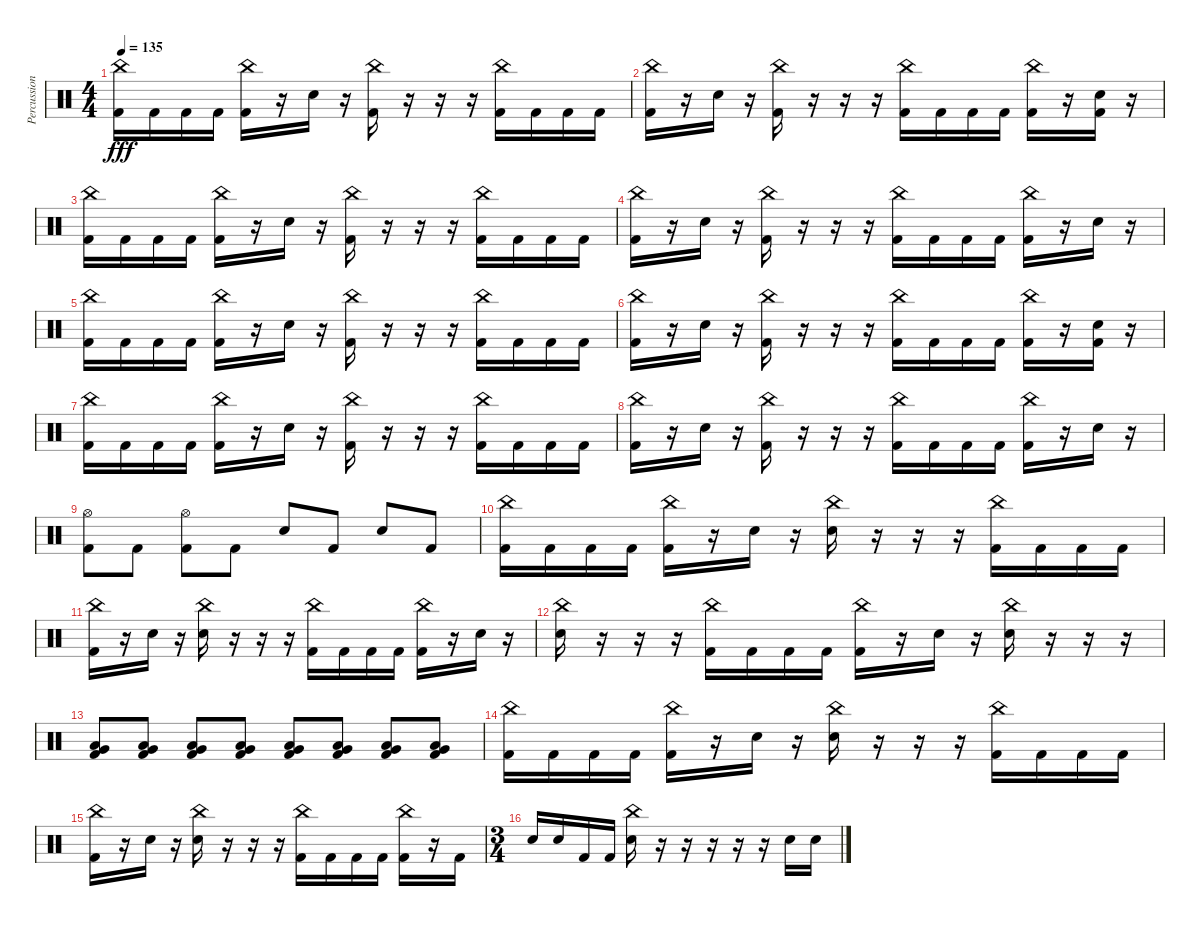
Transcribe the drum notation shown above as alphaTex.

\track ("Percussion" "Percussion") {instrument percussion}
\staff {score}
\articulation defaults
\ts (4 4)
\tempo 135
\clef neutral
\ks c
("China (hit)" "Kick (hit) 2").16{dy fff} "Kick (hit) 2".16 "Kick (hit) 2".16 "Kick (hit) 2".16 ("China (hit)" "Kick (hit) 2").16 r.16 "Snare (hit) 2".16 r.16 ("China (hit)" "Kick (hit) 2").16 r.16 r.16 r.16 ("China (hit)" "Kick (hit) 2").16 "Kick (hit) 2".16 "Kick (hit) 2".16 "Kick (hit) 2".16 |
("China (hit)" "Kick (hit) 2").16 r.16 "Snare (hit) 2".16 r.16 ("China (hit)" "Kick (hit) 2").16 r.16 r.16 r.16 ("China (hit)" "Kick (hit) 2").16 "Kick (hit) 2".16 "Kick (hit) 2".16 "Kick (hit) 2".16 ("China (hit)" "Kick (hit) 2").16 r.16 ("Snare (hit) 2" "Kick (hit) 2").16 r.16 |
("China (hit)" "Kick (hit) 2").16 "Kick (hit) 2".16 "Kick (hit) 2".16 "Kick (hit) 2".16 ("China (hit)" "Kick (hit) 2").16 r.16 "Snare (hit) 2".16 r.16 ("China (hit)" "Kick (hit) 2").16 r.16 r.16 r.16 ("China (hit)" "Kick (hit) 2").16 "Kick (hit) 2".16 "Kick (hit) 2".16 "Kick (hit) 2".16 |
("China (hit)" "Kick (hit) 2").16 r.16 "Snare (hit) 2".16 r.16 ("China (hit)" "Kick (hit) 2").16 r.16 r.16 r.16 ("China (hit)" "Kick (hit) 2").16 "Kick (hit) 2".16 "Kick (hit) 2".16 "Kick (hit) 2".16 ("China (hit)" "Kick (hit) 2").16 r.16 "Snare (hit) 2".16 r.16 |
("China (hit)" "Kick (hit) 2").16 "Kick (hit) 2".16 "Kick (hit) 2".16 "Kick (hit) 2".16 ("China (hit)" "Kick (hit) 2").16 r.16 "Snare (hit) 2".16 r.16 ("China (hit)" "Kick (hit) 2").16 r.16 r.16 r.16 ("China (hit)" "Kick (hit) 2").16 "Kick (hit) 2".16 "Kick (hit) 2".16 "Kick (hit) 2".16 |
("China (hit)" "Kick (hit) 2").16 r.16 "Snare (hit) 2".16 r.16 ("China (hit)" "Kick (hit) 2").16 r.16 r.16 r.16 ("China (hit)" "Kick (hit) 2").16 "Kick (hit) 2".16 "Kick (hit) 2".16 "Kick (hit) 2".16 ("China (hit)" "Kick (hit) 2").16 r.16 ("Snare (hit) 2" "Kick (hit) 2").16 r.16 |
("China (hit)" "Kick (hit) 2").16 "Kick (hit) 2".16 "Kick (hit) 2".16 "Kick (hit) 2".16 ("China (hit)" "Kick (hit) 2").16 r.16 "Snare (hit) 2".16 r.16 ("China (hit)" "Kick (hit) 2").16 r.16 r.16 r.16 ("China (hit)" "Kick (hit) 2").16 "Kick (hit) 2".16 "Kick (hit) 2".16 "Kick (hit) 2".16 |
("China (hit)" "Kick (hit) 2").16 r.16 "Snare (hit) 2".16 r.16 ("China (hit)" "Kick (hit) 2").16 r.16 r.16 r.16 ("China (hit)" "Kick (hit) 2").16 "Kick (hit) 2".16 "Kick (hit) 2".16 "Kick (hit) 2".16 ("China (hit)" "Kick (hit) 2").16 r.16 "Snare (hit) 2".16 r.16 |
("Hi-Hat (open)" "Kick (hit) 2").8 "Kick (hit) 2".8 ("Hi-Hat (open)" "Kick (hit) 2").8 "Kick (hit) 2".8 "Snare (hit) 2".8 "Kick (hit) 2".8 "Snare (hit) 2".8 "Kick (hit) 2".8 |
("China (hit)" "Kick (hit) 2").16 "Kick (hit) 2".16 "Kick (hit) 2".16 "Kick (hit) 2".16 ("China (hit)" "Kick (hit) 2").16 r.16 "Snare (hit) 2".16 r.16 ("China (hit)" "Snare (hit) 2").16 r.16 r.16 r.16 ("China (hit)" "Kick (hit) 2").16 "Kick (hit) 2".16 "Kick (hit) 2".16 "Kick (hit) 2".16 |
("China (hit)" "Kick (hit) 2").16 r.16 "Snare (hit) 2".16 r.16 ("China (hit)" "Snare (hit) 2").16 r.16 r.16 r.16 ("China (hit)" "Kick (hit) 2").16 "Kick (hit) 2".16 "Kick (hit) 2".16 "Kick (hit) 2".16 ("China (hit)" "Kick (hit) 2").16 r.16 "Snare (hit) 2".16 r.16 |
("China (hit)" "Snare (hit) 2").16 r.16 r.16 r.16 ("China (hit)" "Kick (hit) 2").16 "Kick (hit) 2".16 "Kick (hit) 2".16 "Kick (hit) 2".16 ("China (hit)" "Kick (hit) 2").16 r.16 "Snare (hit) 2".16 r.16 ("China (hit)" "Snare (hit) 2").16 r.16 r.16 r.16 |
("Very Low Tom (hit)" "Low Floor Tom (hit)" "Kick (hit) 2").8 ("Very Low Tom (hit)" "Low Floor Tom (hit)" "Kick (hit) 2").8 ("Very Low Tom (hit)" "Low Floor Tom (hit)" "Kick (hit) 2").8 ("Very Low Tom (hit)" "Low Floor Tom (hit)" "Kick (hit) 2").8 ("Very Low Tom (hit)" "Low Floor Tom (hit)" "Kick (hit) 2").8 ("Very Low Tom (hit)" "Low Floor Tom (hit)" "Kick (hit) 2").8 ("Very Low Tom (hit)" "Low Floor Tom (hit)" "Kick (hit) 2").8 ("Very Low Tom (hit)" "Low Floor Tom (hit)" "Kick (hit) 2").8 |
("China (hit)" "Kick (hit) 2").16 "Kick (hit) 2".16 "Kick (hit) 2".16 "Kick (hit) 2".16 ("China (hit)" "Kick (hit) 2").16 r.16 "Snare (hit) 2".16 r.16 ("China (hit)" "Snare (hit) 2").16 r.16 r.16 r.16 ("China (hit)" "Kick (hit) 2").16 "Kick (hit) 2".16 "Kick (hit) 2".16 "Kick (hit) 2".16 |
("China (hit)" "Kick (hit) 2").16 r.16 "Snare (hit) 2".16 r.16 ("China (hit)" "Snare (hit) 2").16 r.16 r.16 r.16 ("China (hit)" "Kick (hit) 2").16 "Kick (hit) 2".16 "Kick (hit) 2".16 "Kick (hit) 2".16 ("China (hit)" "Kick (hit) 2").16 r.16 "Kick (hit) 2".16 |
\ts (3 4)
"Snare (hit) 2".16 "Snare (hit) 2".16 "Kick (hit) 2".16 "Kick (hit) 2".16 ("China (hit)" "Snare (hit) 2").16 r.16 r.16 r.16 r.16 r.16 "Snare (hit) 2".16 "Snare (hit) 2".16
